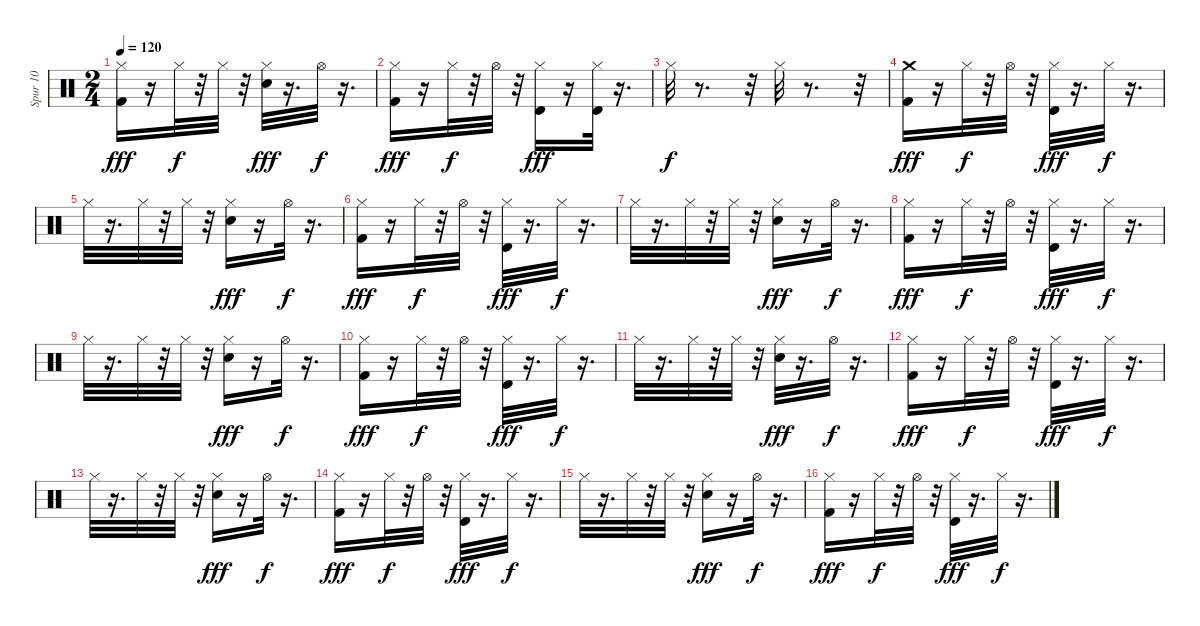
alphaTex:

\track ("Spur 10" "Spur 10") {instrument percussion}
\staff {score}
\articulation defaults
\ts (2 4)
\tempo 120
\clef neutral
\ks c
("Kick (hit) 2" "Hi-Hat (closed)").16{dy fff} r.16 "Hi-Hat (closed)".32{dy f} r.32 "Hi-Hat (closed)".32 r.32 ("Electric Snare (hit)" "Hi-Hat (closed)").32{dy fff} r.16{d} "Hi-Hat (open)".32{dy f} r.16{d} |
("Kick (hit) 2" "Hi-Hat (closed)").16{dy fff} r.16 "Hi-Hat (closed)".32{dy f} r.32 "Hi-Hat (open)".32 r.32 ("Timbale high (hit)" "Hi-Hat (closed)").16{dy fff} r.16 ("Timbale high (hit)" "Hi-Hat (closed)").32 r.16{d} |
"Hi-Hat (closed)".32{dy f} r.8{d} r.32 "Hi-Hat (closed)".32 r.8{d} r.32 |
("Kick (hit) 2" "Crash medium (hit)").16{dy fff} r.16 "Hi-Hat (closed)".32{dy f} r.32 "Hi-Hat (open)".32 r.32 ("Timbale high (hit)" "Hi-Hat (closed)").32{dy fff} r.16{d} "Hi-Hat (closed)".32{dy f} r.16{d} |
"Hi-Hat (closed)".32 r.16{d} "Hi-Hat (closed)".32 r.32 "Hi-Hat (closed)".32 r.32 ("Electric Snare (hit)" "Hi-Hat (closed)").16{dy fff} r.16 "Hi-Hat (open)".32{dy f} r.16{d} |
("Kick (hit) 2" "Hi-Hat (closed)").16{dy fff} r.16 "Hi-Hat (closed)".32{dy f} r.32 "Hi-Hat (open)".32 r.32 ("Timbale high (hit)" "Hi-Hat (closed)").32{dy fff} r.16{d} "Hi-Hat (closed)".32{dy f} r.16{d} |
"Hi-Hat (closed)".32 r.16{d} "Hi-Hat (closed)".32 r.32 "Hi-Hat (closed)".32 r.32 ("Electric Snare (hit)" "Hi-Hat (closed)").16{dy fff} r.16 "Hi-Hat (open)".32{dy f} r.16{d} |
("Kick (hit) 2" "Hi-Hat (closed)").16{dy fff} r.16 "Hi-Hat (closed)".32{dy f} r.32 "Hi-Hat (open)".32 r.32 ("Timbale high (hit)" "Hi-Hat (closed)").32{dy fff} r.16{d} "Hi-Hat (closed)".32{dy f} r.16{d} |
"Hi-Hat (closed)".32 r.16{d} "Hi-Hat (closed)".32 r.32 "Hi-Hat (closed)".32 r.32 ("Electric Snare (hit)" "Hi-Hat (closed)").16{dy fff} r.16 "Hi-Hat (open)".32{dy f} r.16{d} |
("Kick (hit) 2" "Hi-Hat (closed)").16{dy fff} r.16 "Hi-Hat (closed)".32{dy f} r.32 "Hi-Hat (open)".32 r.32 ("Timbale high (hit)" "Hi-Hat (closed)").32{dy fff} r.16{d} "Hi-Hat (closed)".32{dy f} r.16{d} |
"Hi-Hat (closed)".32 r.16{d} "Hi-Hat (closed)".32 r.32 "Hi-Hat (closed)".32 r.32 ("Electric Snare (hit)" "Hi-Hat (closed)").32{dy fff} r.16{d} "Hi-Hat (open)".32{dy f} r.16{d} |
("Kick (hit) 2" "Hi-Hat (closed)").16{dy fff} r.16 "Hi-Hat (closed)".32{dy f} r.32 "Hi-Hat (open)".32 r.32 ("Timbale high (hit)" "Hi-Hat (closed)").32{dy fff} r.16{d} "Hi-Hat (closed)".32{dy f} r.16{d} |
"Hi-Hat (closed)".32 r.16{d} "Hi-Hat (closed)".32 r.32 "Hi-Hat (closed)".32 r.32 ("Electric Snare (hit)" "Hi-Hat (closed)").16{dy fff} r.16 "Hi-Hat (open)".32{dy f} r.16{d} |
("Kick (hit) 2" "Hi-Hat (closed)").16{dy fff} r.16 "Hi-Hat (closed)".32{dy f} r.32 "Hi-Hat (open)".32 r.32 ("Timbale high (hit)" "Hi-Hat (closed)").32{dy fff} r.16{d} "Hi-Hat (closed)".32{dy f} r.16{d} |
"Hi-Hat (closed)".32 r.16{d} "Hi-Hat (closed)".32 r.32 "Hi-Hat (closed)".32 r.32 ("Electric Snare (hit)" "Hi-Hat (closed)").16{dy fff} r.16 "Hi-Hat (open)".32{dy f} r.16{d} |
("Kick (hit) 2" "Hi-Hat (closed)").16{dy fff} r.16 "Hi-Hat (closed)".32{dy f} r.32 "Hi-Hat (open)".32 r.32 ("Timbale high (hit)" "Hi-Hat (closed)").32{dy fff} r.16{d} "Hi-Hat (closed)".32{dy f} r.16{d}
